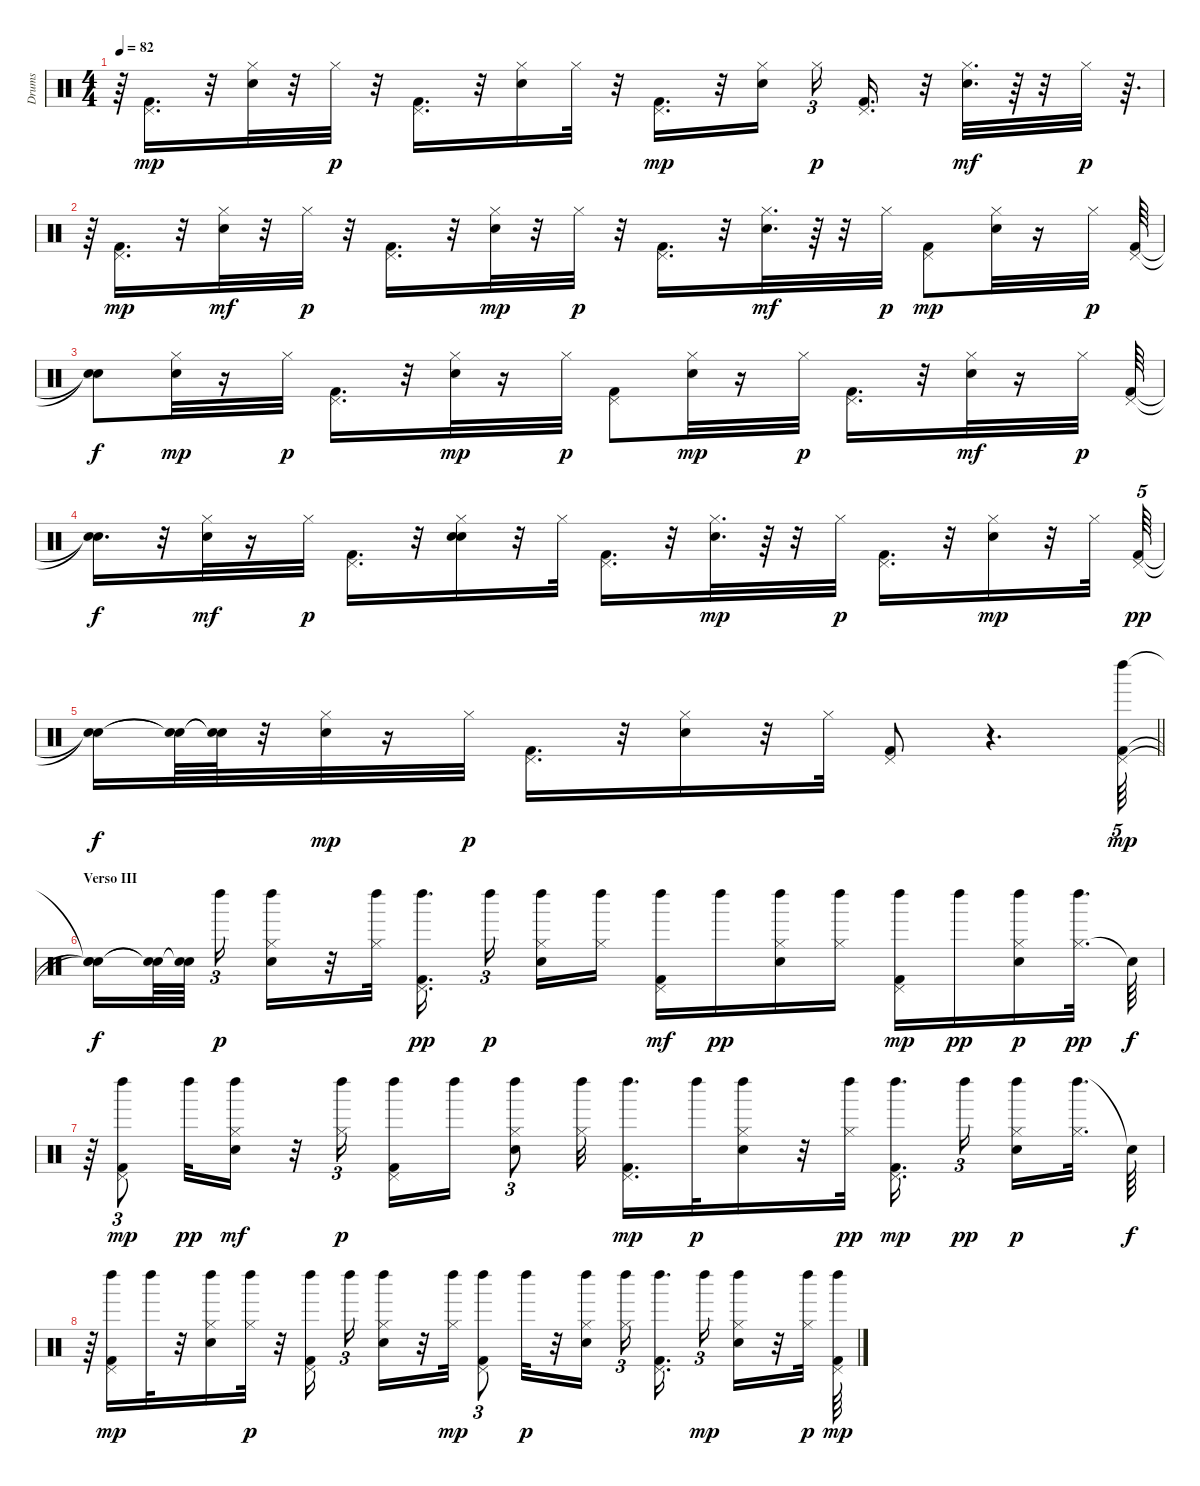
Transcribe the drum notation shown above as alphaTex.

\track ("Drums" "Drums") {instrument percussion}
\staff {score}
\articulation defaults
\ts (4 4)
\tempo 82
\clef neutral
\ks c
r.64{dy p} ("Pedal Hi-Hat (hit)" "Kick (hit) 2").16{d dy mp} r.32 ("Hi-Hat (closed)" "Hand Clap (hit)").32 r.32 "Hi-Hat (closed)".32{dy p} r.32 ("Pedal Hi-Hat (hit)" "Kick (hit) 2").16{d} r.32 ("Hi-Hat (closed)" "Hand Clap (hit)").16 "Hi-Hat (closed)".32 r.32 ("Pedal Hi-Hat (hit)" "Kick (hit) 2").16{d dy mp} r.32 ("Hi-Hat (closed)" "Hand Clap (hit)").16{beam splitsecondary} "Hi-Hat (closed)".16{tu (3 2) dy p} ("Pedal Hi-Hat (hit)" "Kick (hit) 2").16{d} r.32 ("Hi-Hat (closed)" "Hand Clap (hit)").32{d dy mf} r.64 r.32 "Hi-Hat (closed)".32{dy p} r.64{d} |
r.64 ("Pedal Hi-Hat (hit)" "Kick (hit) 2").16{d dy mp} r.32 ("Hi-Hat (closed)" "Hand Clap (hit)").32{dy mf} r.32 "Hi-Hat (closed)".32{dy p} r.32 ("Kick (hit) 2" "Pedal Hi-Hat (hit)").16{d} r.32 ("Hi-Hat (closed)" "Hand Clap (hit)").32{dy mp} r.32 "Hi-Hat (closed)".32{dy p} r.32 ("Pedal Hi-Hat (hit)" "Kick (hit) 2").16{d} r.32 ("Hi-Hat (closed)" "Hand Clap (hit)").32{d dy mf} r.64 r.32 "Hi-Hat (closed)".32{dy p} ("Pedal Hi-Hat (hit)" "Kick (hit) 2").8{dy mp} ("Hi-Hat (closed)" "Hand Clap (hit)").32 r.16 "Hi-Hat (closed)".32{dy p} ("Kick (hit) 2" "Pedal Hi-Hat (hit)").64 |
("Snare (hit)"{t} "Snare (hit)"{t}).8{dy f} ("Hi-Hat (closed)" "Hand Clap (hit)").32{dy mp} r.16 "Hi-Hat (closed)".32{dy p} ("Pedal Hi-Hat (hit)" "Kick (hit) 2").16{d} r.32 ("Hi-Hat (closed)" "Hand Clap (hit)").32{dy mp} r.16 "Hi-Hat (closed)".32{dy p} ("Pedal Hi-Hat (hit)" "Kick (hit) 2").8 ("Hi-Hat (closed)" "Hand Clap (hit)").32{dy mp} r.16 "Hi-Hat (closed)".32{dy p} ("Kick (hit) 2" "Pedal Hi-Hat (hit)").16{d} r.32 ("Hi-Hat (closed)" "Hand Clap (hit)").32{dy mf} r.16 "Hi-Hat (closed)".32{dy p} ("Kick (hit) 2" "Pedal Hi-Hat (hit)").64 |
("Snare (hit)"{t} "Snare (hit)"{t}).16{d dy f} r.32 ("Hi-Hat (closed)" "Hand Clap (hit)").32{dy mf} r.16 "Hi-Hat (closed)".32{dy p} ("Kick (hit) 2" "Pedal Hi-Hat (hit)").16{d} r.32 ("Hi-Hat (closed)" "Hand Clap (hit)" "Snare (hit) 2").16 r.32 "Hi-Hat (closed)".32 ("Pedal Hi-Hat (hit)" "Kick (hit) 2").16{d} r.32 ("Hi-Hat (closed)" "Hand Clap (hit)").32{d dy mp} r.64 r.32 "Hi-Hat (closed)".32{dy p} ("Pedal Hi-Hat (hit)" "Kick (hit) 2").16{d} r.32 ("Hi-Hat (closed)" "Hand Clap (hit)").16{dy mp} r.32 "Hi-Hat (closed)".32 ("Pedal Hi-Hat (hit)" "Kick (hit) 2").64{tu (5 4) dy pp} |
\barLineRight lightlight
("Snare (hit)"{t} "Snare (hit)"{t}).16{dy f} ("Snare (hit)"{t} "Snare (hit)"{t}).64 ("Snare (hit)"{t} "Snare (hit)"{t}).64 r.32 ("Hi-Hat (closed)" "Hand Clap (hit)").32{dy mp} r.16 "Hi-Hat (closed)".32{dy p} ("Pedal Hi-Hat (hit)" "Kick (hit) 2").16{d} r.32 ("Hi-Hat (closed)" "Hand Clap (hit)").16 r.32 "Hi-Hat (closed)".32 ("Pedal Hi-Hat (hit)" "Kick (hit) 2").8 r.4{d} ("Pedal Hi-Hat (hit)" "Kick (hit) 2" "Left Maraca (hit)").64{tu (5 4) dy mp} |
\section ("" "Verso III")
("Snare (hit)"{t} "Snare (hit)"{t} "Snare (hit)"{t}).16{dy f} ("Snare (hit)"{t} "Snare (hit)"{t}).64 ("Snare (hit)"{t} "Snare (hit)"{t}).64{beam splitsecondary} "Left Maraca (hit)".16{tu (3 2) dy p} ("Hi-Hat (closed)" "Hand Clap (hit)" "Left Maraca (hit)").16 r.32 ("Left Maraca (hit)" "Hi-Hat (closed)").32 ("Left Maraca (hit)" "Kick (hit) 2" "Pedal Hi-Hat (hit)").16{d dy pp beam splitsecondary} "Left Maraca (hit)".16{tu (3 2) dy p beam splitsecondary} ("Hi-Hat (closed)" "Left Maraca (hit)" "Hand Clap (hit)").16 ("Hi-Hat (closed)" "Left Maraca (hit)").16 ("Pedal Hi-Hat (hit)" "Left Maraca (hit)" "Kick (hit) 2").16{dy mf} "Left Maraca (hit)".16{dy pp} ("Hi-Hat (closed)" "Left Maraca (hit)" "Hand Clap (hit)").16 ("Left Maraca (hit)" "Hi-Hat (closed)").16 ("Pedal Hi-Hat (hit)" "Left Maraca (hit)" "Kick (hit) 2").16{dy mp} "Left Maraca (hit)".16{dy pp} ("Hi-Hat (closed)" "Hand Clap (hit)" "Left Maraca (hit)").16{dy p} ("Hi-Hat (closed)" "Left Maraca (hit)").32{d dy pp} "Snare (hit)"{t}.64{dy f} |
r.64 ("Pedal Hi-Hat (hit)" "Left Maraca (hit)" "Kick (hit) 2").8{tu (3 2) dy mp} "Left Maraca (hit)".32{dy pp} ("Hi-Hat (closed)" "Left Maraca (hit)" "Hand Clap (hit)").16{dy mf} r.32 ("Hi-Hat (closed)" "Left Maraca (hit)").16{tu (3 2) dy p} ("Pedal Hi-Hat (hit)" "Left Maraca (hit)" "Kick (hit) 2").16 "Left Maraca (hit)".16 ("Hi-Hat (closed)" "Hand Clap (hit)" "Left Maraca (hit)").8{tu (3 2)} ("Hi-Hat (closed)" "Left Maraca (hit)").32 ("Pedal Hi-Hat (hit)" "Left Maraca (hit)" "Kick (hit) 2").16{d dy mp} "Left Maraca (hit)".32{dy p} ("Hi-Hat (closed)" "Left Maraca (hit)" "Hand Clap (hit)").16 r.32 ("Left Maraca (hit)" "Hi-Hat (closed)").32{dy pp} ("Pedal Hi-Hat (hit)" "Left Maraca (hit)" "Kick (hit) 2").16{d dy mp beam splitsecondary} "Left Maraca (hit)".16{tu (3 2) dy pp beam splitsecondary} ("Hi-Hat (closed)" "Hand Clap (hit)" "Left Maraca (hit)").16{dy p} ("Left Maraca (hit)" "Hi-Hat (closed)").32{d} "Snare (hit)"{t}.64{dy f} |
r.64 ("Pedal Hi-Hat (hit)" "Left Maraca (hit)" "Kick (hit) 2").16{dy mp} "Left Maraca (hit)".32 r.32 ("Hi-Hat (closed)" "Hand Clap (hit)" "Left Maraca (hit)").16 ("Left Maraca (hit)" "Hi-Hat (closed)").32{dy p} r.32 ("Pedal Hi-Hat (hit)" "Left Maraca (hit)" "Kick (hit) 2").16{beam splitsecondary} "Left Maraca (hit)".16{tu (3 2)} ("Hi-Hat (closed)" "Hand Clap (hit)" "Left Maraca (hit)").16 r.32 ("Hi-Hat (closed)" "Left Maraca (hit)").32{dy mp} ("Pedal Hi-Hat (hit)" "Left Maraca (hit)" "Kick (hit) 2").8{tu (3 2)} "Left Maraca (hit)".32{dy p} r.32 ("Hi-Hat (closed)" "Hand Clap (hit)" "Left Maraca (hit)").16{beam splitsecondary} ("Hi-Hat (closed)" "Left Maraca (hit)").16{tu (3 2)} ("Pedal Hi-Hat (hit)" "Left Maraca (hit)" "Kick (hit) 2").16{d} "Left Maraca (hit)".16{tu (3 2) dy mp} ("Hi-Hat (closed)" "Left Maraca (hit)" "Hand Clap (hit)").16 r.32 ("Hi-Hat (closed)" "Left Maraca (hit)").32{dy p} ("Pedal Hi-Hat (hit)" "Left Maraca (hit)" "Kick (hit) 2").64{dy mp}
